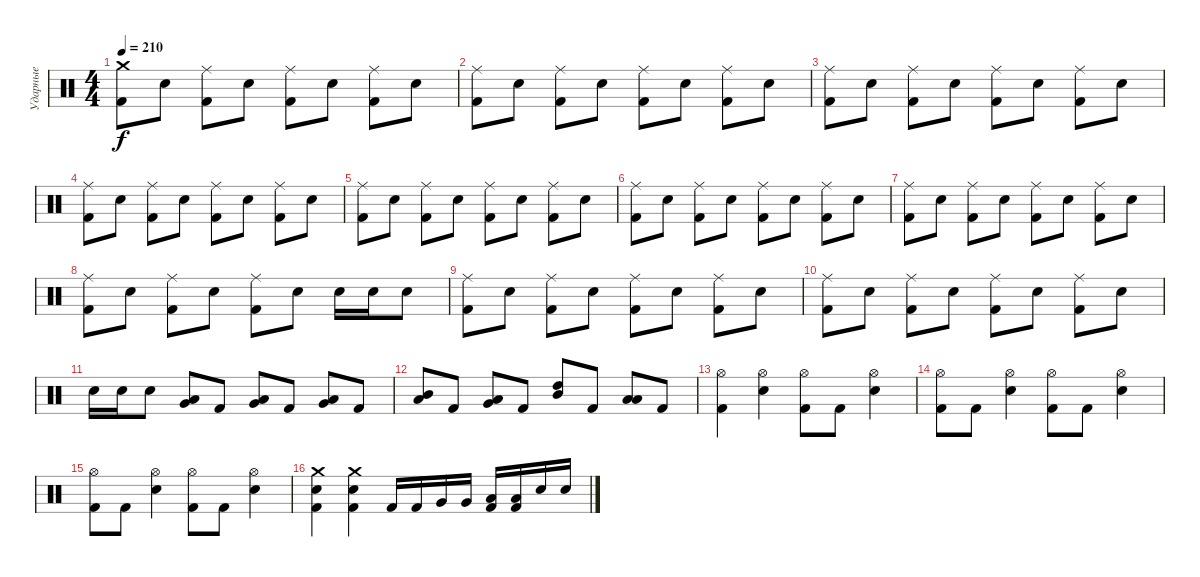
\track ("Ударные" "Ударные") {instrument percussion}
\staff {score}
\articulation defaults
\ts (4 4)
\tempo 210
\clef neutral
\ks c
("Crash medium (hit)" "Kick (hit) 2").8{dy f} "Snare (hit) 2".8 ("Ride (middle)" "Kick (hit) 2").8 "Snare (hit) 2".8 ("Ride (middle)" "Kick (hit) 2").8 "Snare (hit) 2".8 ("Ride (middle)" "Kick (hit) 2").8 "Snare (hit) 2".8 |
("Ride (middle)" "Kick (hit) 2").8 "Snare (hit) 2".8 ("Ride (middle)" "Kick (hit) 2").8 "Snare (hit) 2".8 ("Ride (middle)" "Kick (hit) 2").8 "Snare (hit) 2".8 ("Ride (middle)" "Kick (hit) 2").8 "Snare (hit) 2".8 |
("Ride (middle)" "Kick (hit) 2").8 "Snare (hit) 2".8 ("Ride (middle)" "Kick (hit) 2").8 "Snare (hit) 2".8 ("Ride (middle)" "Kick (hit) 2").8 "Snare (hit) 2".8 ("Ride (middle)" "Kick (hit) 2").8 "Snare (hit) 2".8 |
("Ride (middle)" "Kick (hit) 2").8 "Snare (hit) 2".8 ("Ride (middle)" "Kick (hit) 2").8 "Snare (hit) 2".8 ("Ride (middle)" "Kick (hit) 2").8 "Snare (hit) 2".8 ("Ride (middle)" "Kick (hit) 2").8 "Snare (hit) 2".8 |
("Ride (middle)" "Kick (hit) 2").8 "Snare (hit) 2".8 ("Ride (middle)" "Kick (hit) 2").8 "Snare (hit) 2".8 ("Ride (middle)" "Kick (hit) 2").8 "Snare (hit) 2".8 ("Ride (middle)" "Kick (hit) 2").8 "Snare (hit) 2".8 |
("Ride (middle)" "Kick (hit) 2").8 "Snare (hit) 2".8 ("Ride (middle)" "Kick (hit) 2").8 "Snare (hit) 2".8 ("Ride (middle)" "Kick (hit) 2").8 "Snare (hit) 2".8 ("Ride (middle)" "Kick (hit) 2").8 "Snare (hit) 2".8 |
("Ride (middle)" "Kick (hit) 2").8 "Snare (hit) 2".8 ("Ride (middle)" "Kick (hit) 2").8 "Snare (hit) 2".8 ("Ride (middle)" "Kick (hit) 2").8 "Snare (hit) 2".8 ("Ride (middle)" "Kick (hit) 2").8 "Snare (hit) 2".8 |
("Ride (middle)" "Kick (hit) 2").8 "Snare (hit) 2".8 ("Ride (middle)" "Kick (hit) 2").8 "Snare (hit) 2".8 ("Ride (middle)" "Kick (hit) 2").8 "Snare (hit) 2".8 "Snare (hit) 2".16 "Snare (hit) 2".16 "Snare (hit) 2".8 |
("Ride (middle)" "Kick (hit) 2").8 "Snare (hit) 2".8 ("Ride (middle)" "Kick (hit) 2").8 "Snare (hit) 2".8 ("Ride (middle)" "Kick (hit) 2").8 "Snare (hit) 2".8 ("Ride (middle)" "Kick (hit) 2").8 "Snare (hit) 2".8 |
("Ride (middle)" "Kick (hit) 2").8 "Snare (hit) 2".8 ("Ride (middle)" "Kick (hit) 2").8 "Snare (hit) 2".8 ("Ride (middle)" "Kick (hit) 2").8 "Snare (hit) 2".8 ("Ride (middle)" "Kick (hit) 2").8 "Snare (hit) 2".8 |
"Snare (hit) 2".16 "Snare (hit) 2".16 "Snare (hit) 2".8 ("Very Low Tom (hit)" "Low Floor Tom (hit)").8 "Kick (hit) 2".8 ("Low Tom (hit)" "Very Low Tom (hit)").8 "Kick (hit) 2".8 ("Very Low Tom (hit)" "Low Floor Tom (hit)").8 "Kick (hit) 2".8 |
("Mid Tom (hit)" "Low Tom (hit)").8 "Kick (hit) 2".8 ("Low Tom (hit)" "Very Low Tom (hit)").8 "Kick (hit) 2".8 ("High Tom (hit)" "Mid Tom (hit)").8 "Kick (hit) 2".8 ("Low Tom (hit)" "Low Tom (hit)").8 "Kick (hit) 2".8 |
("Hi-Hat (open)" "Kick (hit) 2").4 ("Hi-Hat (open)" "Snare (hit) 2").4 ("Hi-Hat (open)" "Kick (hit) 2").8 "Kick (hit) 2".8 ("Hi-Hat (open)" "Snare (hit) 2").4 |
("Hi-Hat (open)" "Kick (hit) 2").8 "Kick (hit) 2".8 ("Hi-Hat (open)" "Snare (hit) 2").4 ("Hi-Hat (open)" "Kick (hit) 2").8 "Kick (hit) 2".8 ("Hi-Hat (open)" "Snare (hit) 2").4 |
("Hi-Hat (open)" "Kick (hit) 2").8 "Kick (hit) 2".8 ("Hi-Hat (open)" "Snare (hit) 2").4 ("Hi-Hat (open)" "Kick (hit) 2").8 "Kick (hit) 2".8 ("Hi-Hat (open)" "Snare (hit) 2").4 |
("Crash medium (hit)" "Snare (hit) 2" "Kick (hit) 2").4 ("Crash medium (hit)" "Snare (hit) 2" "Kick (hit) 2").4 "Kick (hit) 2".16 "Kick (hit) 2".16 "Very Low Tom (hit)".16 "Very Low Tom (hit)".16 ("Low Tom (hit)" "Kick (hit) 2").16 ("Low Tom (hit)" "Kick (hit) 2").16 "Snare (hit) 2".16 "Snare (hit) 2".16
